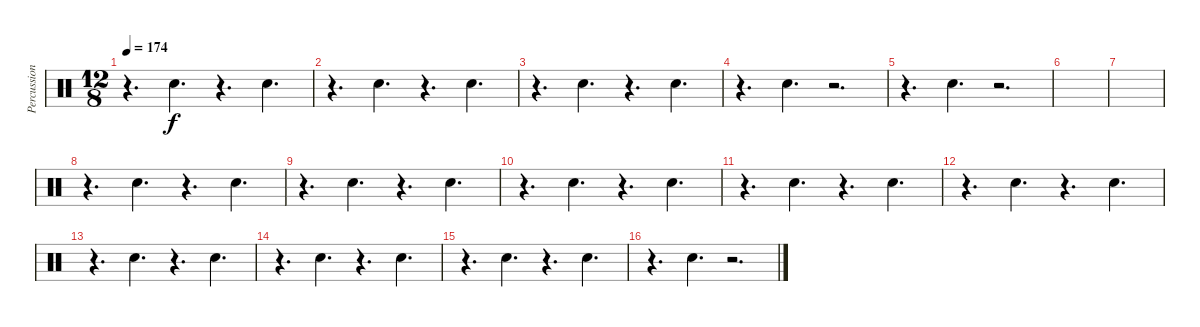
\track ("Percussion" "Percussion") {instrument percussion}
\staff {score}
\articulation defaults
\ts (12 8)
\tempo 174
\clef neutral
\ks c
r.4{d dy f} "Hand Clap (hit)".4{d} r.4{d} "Hand Clap (hit)".4{d} |
r.4{d} "Hand Clap (hit)".4{d} r.4{d} "Hand Clap (hit)".4{d} |
r.4{d} "Hand Clap (hit)".4{d} r.4{d} "Hand Clap (hit)".4{d} |
r.4{d} "Hand Clap (hit)".4{d} r.2{d} |
r.4{d} "Hand Clap (hit)".4{d} r.2{d} |
|
|
r.4{d} "Hand Clap (hit)".4{d} r.4{d} "Hand Clap (hit)".4{d} |
r.4{d} "Hand Clap (hit)".4{d} r.4{d} "Hand Clap (hit)".4{d} |
r.4{d} "Hand Clap (hit)".4{d} r.4{d} "Hand Clap (hit)".4{d} |
r.4{d} "Hand Clap (hit)".4{d} r.4{d} "Hand Clap (hit)".4{d} |
r.4{d} "Hand Clap (hit)".4{d} r.4{d} "Hand Clap (hit)".4{d} |
r.4{d} "Hand Clap (hit)".4{d} r.4{d} "Hand Clap (hit)".4{d} |
r.4{d} "Hand Clap (hit)".4{d} r.4{d} "Hand Clap (hit)".4{d} |
r.4{d} "Hand Clap (hit)".4{d} r.4{d} "Hand Clap (hit)".4{d} |
r.4{d} "Hand Clap (hit)".4{d} r.2{d}
